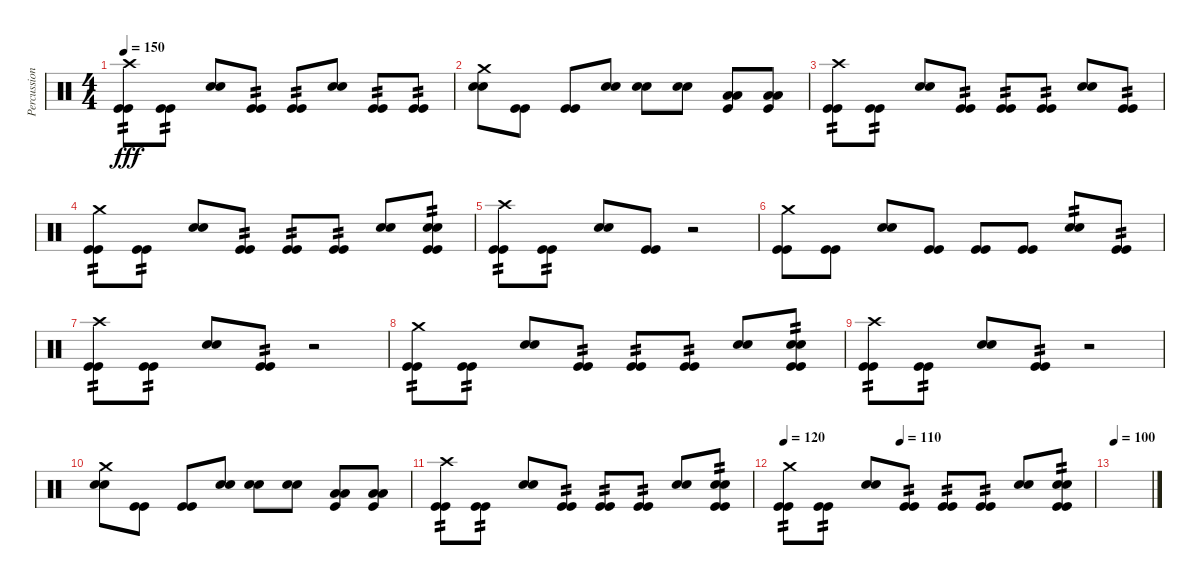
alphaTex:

\track ("Percussion" "Percussion") {instrument percussion}
\staff {score}
\articulation defaults
\ts (4 4)
\tempo 150
\clef neutral
\ks c
("Crash high (hit)" "Kick (hit)" "Kick (hit)").8{tp 2 dy fff} ("Kick (hit)" "Kick (hit)").8{tp 2} ("Snare (hit) 2" "Snare (hit) 2").8 ("Kick (hit)" "Kick (hit)").8{tp 2} ("Kick (hit)" "Kick (hit)").8{tp 2} ("Snare (hit) 2" "Snare (hit) 2").8 ("Kick (hit)" "Kick (hit)").8{tp 2} ("Kick (hit)" "Kick (hit)").8{tp 2} |
("Crash medium (hit)" "Snare (hit) 2" "Snare (hit) 2").8 ("Kick (hit)" "Kick (hit)").8 ("Kick (hit)" "Kick (hit)").8 ("Snare (hit) 2" "Snare (hit) 2").8 ("Snare (hit) 2" "Snare (hit) 2").8 ("Snare (hit) 2" "Snare (hit) 2").8 ("Low Floor Tom (hit)" "Low Floor Tom (hit)" "Kick (hit)").8 ("Low Floor Tom (hit)" "Low Floor Tom (hit)" "Kick (hit)").8 |
("Crash high (hit)" "Kick (hit)" "Kick (hit)").8{tp 2} ("Kick (hit)" "Kick (hit)").8{tp 2} ("Snare (hit) 2" "Snare (hit) 2").8 ("Kick (hit)" "Kick (hit)").8{tp 2} ("Kick (hit)" "Kick (hit)").8{tp 2} ("Kick (hit)" "Kick (hit)").8{tp 2} ("Snare (hit) 2" "Snare (hit) 2").8 ("Kick (hit)" "Kick (hit)").8{tp 2} |
("Crash medium (hit)" "Kick (hit)" "Kick (hit)").8{tp 2} ("Kick (hit)" "Kick (hit)").8{tp 2} ("Snare (hit) 2" "Snare (hit) 2").8 ("Kick (hit)" "Kick (hit)").8{tp 2} ("Kick (hit)" "Kick (hit)").8{tp 2} ("Kick (hit)" "Kick (hit)").8{tp 2} ("Snare (hit) 2" "Snare (hit) 2").8 ("Snare (hit) 2" "Snare (hit) 2" "Kick (hit)" "Kick (hit)").8{tp 2} |
("Crash high (hit)" "Kick (hit)" "Kick (hit)").8{tp 2} ("Kick (hit)" "Kick (hit)").8{tp 2} ("Snare (hit) 2" "Snare (hit) 2").8 ("Kick (hit)" "Kick (hit)").8 r.2 |
("Crash medium (hit)" "Kick (hit)" "Kick (hit)").8 ("Kick (hit)" "Kick (hit)").8 ("Snare (hit) 2" "Snare (hit) 2").8 ("Kick (hit)" "Kick (hit)").8 ("Kick (hit)" "Kick (hit)").8 ("Kick (hit)" "Kick (hit)").8 ("Snare (hit) 2" "Snare (hit) 2").8{tp 2} ("Kick (hit)" "Kick (hit)").8{tp 2} |
("Crash high (hit)" "Kick (hit)" "Kick (hit)").8{tp 2} ("Kick (hit)" "Kick (hit)").8{tp 2} ("Snare (hit) 2" "Snare (hit) 2").8 ("Kick (hit)" "Kick (hit)").8{tp 2} r.2 |
("Crash medium (hit)" "Kick (hit)" "Kick (hit)").8{tp 2} ("Kick (hit)" "Kick (hit)").8{tp 2} ("Snare (hit) 2" "Snare (hit) 2").8 ("Kick (hit)" "Kick (hit)").8{tp 2} ("Kick (hit)" "Kick (hit)").8{tp 2} ("Kick (hit)" "Kick (hit)").8{tp 2} ("Snare (hit) 2" "Snare (hit) 2").8 ("Snare (hit) 2" "Snare (hit) 2" "Kick (hit)" "Kick (hit)").8{tp 2} |
("Crash high (hit)" "Kick (hit)" "Kick (hit)").8{tp 2} ("Kick (hit)" "Kick (hit)").8{tp 2} ("Snare (hit) 2" "Snare (hit) 2").8 ("Kick (hit)" "Kick (hit)").8{tp 2} r.2 |
("Crash medium (hit)" "Snare (hit) 2" "Snare (hit) 2").8 ("Kick (hit)" "Kick (hit)").8 ("Kick (hit)" "Kick (hit)").8 ("Snare (hit) 2" "Snare (hit) 2").8 ("Snare (hit) 2" "Snare (hit) 2").8 ("Snare (hit) 2" "Snare (hit) 2").8 ("Low Floor Tom (hit)" "Low Floor Tom (hit)" "Kick (hit)").8 ("Low Floor Tom (hit)" "Low Floor Tom (hit)" "Kick (hit)").8 |
("Crash high (hit)" "Kick (hit)" "Kick (hit)").8{tp 2} ("Kick (hit)" "Kick (hit)").8{tp 2} ("Snare (hit) 2" "Snare (hit) 2").8 ("Kick (hit)" "Kick (hit)").8{tp 2} ("Kick (hit)" "Kick (hit)").8{tp 2} ("Kick (hit)" "Kick (hit)").8{tp 2} ("Snare (hit) 2" "Snare (hit) 2").8 ("Snare (hit) 2" "Snare (hit) 2" "Kick (hit)" "Kick (hit)").8{tp 2} |
\tempo 120
\tempo (110 0.375)
("Crash medium (hit)" "Kick (hit)" "Kick (hit)").8{tp 2} ("Kick (hit)" "Kick (hit)").8{tp 2} ("Snare (hit) 2" "Snare (hit) 2").8 ("Kick (hit)" "Kick (hit)").8{tp 2} ("Kick (hit)" "Kick (hit)").8{tp 2} ("Kick (hit)" "Kick (hit)").8{tp 2} ("Snare (hit) 2" "Snare (hit) 2").8 ("Snare (hit) 2" "Snare (hit) 2" "Kick (hit)" "Kick (hit)").8{tp 2} |
\tempo 100
